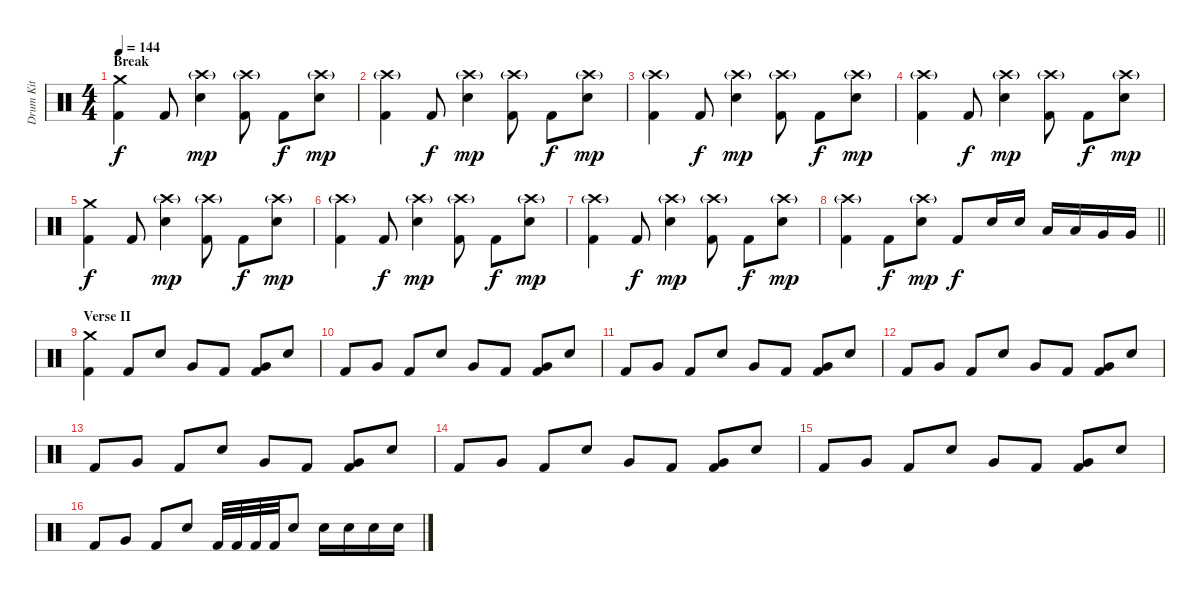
\track ("Drum Kit" "Drum Kit") {instrument percussion}
\staff {score}
\articulation defaults
\ts (4 4)
\section ("" "Break")
\tempo 144
\clef neutral
\ks c
("Crash medium (hit)" "Kick (hit) 2").4{dy f} "Kick (hit) 2".8 ("Crash high (hit)"{g} "Electric Snare (hit)").4{dy mp} ("Crash high (hit)"{g} "Kick (hit) 2").8 "Kick (hit) 2".8{dy f} ("Crash high (hit)"{g} "Electric Snare (hit)").8{dy mp} |
("Crash high (hit)"{g} "Kick (hit) 2").4 "Kick (hit) 2".8{dy f} ("Crash high (hit)"{g} "Electric Snare (hit)").4{dy mp} ("Crash high (hit)"{g} "Kick (hit) 2").8 "Kick (hit) 2".8{dy f} ("Crash high (hit)"{g} "Electric Snare (hit)").8{dy mp} |
("Crash high (hit)"{g} "Kick (hit) 2").4 "Kick (hit) 2".8{dy f} ("Crash high (hit)"{g} "Electric Snare (hit)").4{dy mp} ("Crash high (hit)"{g} "Kick (hit) 2").8 "Kick (hit) 2".8{dy f} ("Crash high (hit)"{g} "Electric Snare (hit)").8{dy mp} |
("Crash high (hit)"{g} "Kick (hit) 2").4 "Kick (hit) 2".8{dy f} ("Crash high (hit)"{g} "Electric Snare (hit)").4{dy mp} ("Crash high (hit)"{g} "Kick (hit) 2").8 "Kick (hit) 2".8{dy f} ("Crash high (hit)"{g} "Electric Snare (hit)").8{dy mp} |
("Crash medium (hit)" "Kick (hit) 2").4{dy f} "Kick (hit) 2".8 ("Crash high (hit)"{g} "Electric Snare (hit)").4{dy mp} ("Crash high (hit)"{g} "Kick (hit) 2").8 "Kick (hit) 2".8{dy f} ("Crash high (hit)"{g} "Electric Snare (hit)").8{dy mp} |
("Crash high (hit)"{g} "Kick (hit) 2").4 "Kick (hit) 2".8{dy f} ("Crash high (hit)"{g} "Electric Snare (hit)").4{dy mp} ("Crash high (hit)"{g} "Kick (hit) 2").8 "Kick (hit) 2".8{dy f} ("Crash high (hit)"{g} "Electric Snare (hit)").8{dy mp} |
("Crash high (hit)"{g} "Kick (hit) 2").4 "Kick (hit) 2".8{dy f} ("Crash high (hit)"{g} "Electric Snare (hit)").4{dy mp} ("Crash high (hit)"{g} "Kick (hit) 2").8 "Kick (hit) 2".8{dy f} ("Crash high (hit)"{g} "Electric Snare (hit)").8{dy mp} |
\barLineRight lightlight
("Crash high (hit)"{g} "Kick (hit) 2").4 "Kick (hit) 2".8{dy f} ("Crash high (hit)"{g} "Electric Snare (hit)").8{dy mp} "Kick (hit) 2".8{dy f} "Electric Snare (hit)".16 "Electric Snare (hit)".16 "Low Tom (hit)".16 "Low Tom (hit)".16 "Very Low Tom (hit)".16 "Very Low Tom (hit)".16 |
\section ("" "Verse II")
("Crash medium (hit)" "Kick (hit) 2").4 "Kick (hit) 2".8 "Electric Snare (hit)".8 "Very Low Tom (hit)".8 "Kick (hit) 2".8 ("Very Low Tom (hit)" "Kick (hit) 2").8 "Electric Snare (hit)".8 |
"Kick (hit) 2".8 "Very Low Tom (hit)".8 "Kick (hit) 2".8 "Electric Snare (hit)".8 "Very Low Tom (hit)".8 "Kick (hit) 2".8 ("Very Low Tom (hit)" "Kick (hit) 2").8 "Electric Snare (hit)".8 |
"Kick (hit) 2".8 "Very Low Tom (hit)".8 "Kick (hit) 2".8 "Electric Snare (hit)".8 "Very Low Tom (hit)".8 "Kick (hit) 2".8 ("Very Low Tom (hit)" "Kick (hit) 2").8 "Electric Snare (hit)".8 |
"Kick (hit) 2".8 "Very Low Tom (hit)".8 "Kick (hit) 2".8 "Electric Snare (hit)".8 "Very Low Tom (hit)".8 "Kick (hit) 2".8 ("Very Low Tom (hit)" "Kick (hit) 2").8 "Electric Snare (hit)".8 |
"Kick (hit) 2".8 "Very Low Tom (hit)".8 "Kick (hit) 2".8 "Electric Snare (hit)".8 "Very Low Tom (hit)".8 "Kick (hit) 2".8 ("Very Low Tom (hit)" "Kick (hit) 2").8 "Electric Snare (hit)".8 |
"Kick (hit) 2".8 "Very Low Tom (hit)".8 "Kick (hit) 2".8 "Electric Snare (hit)".8 "Very Low Tom (hit)".8 "Kick (hit) 2".8 ("Very Low Tom (hit)" "Kick (hit) 2").8 "Electric Snare (hit)".8 |
"Kick (hit) 2".8 "Very Low Tom (hit)".8 "Kick (hit) 2".8 "Electric Snare (hit)".8 "Very Low Tom (hit)".8 "Kick (hit) 2".8 ("Very Low Tom (hit)" "Kick (hit) 2").8 "Electric Snare (hit)".8 |
"Kick (hit) 2".8 "Very Low Tom (hit)".8 "Kick (hit) 2".8 "Electric Snare (hit)".8 "Kick (hit) 2".32 "Kick (hit) 2".32 "Kick (hit) 2".32 "Kick (hit) 2".32 "Electric Snare (hit)".8 "Electric Snare (hit)".16 "Electric Snare (hit)".16 "Electric Snare (hit)".16 "Electric Snare (hit)".16
